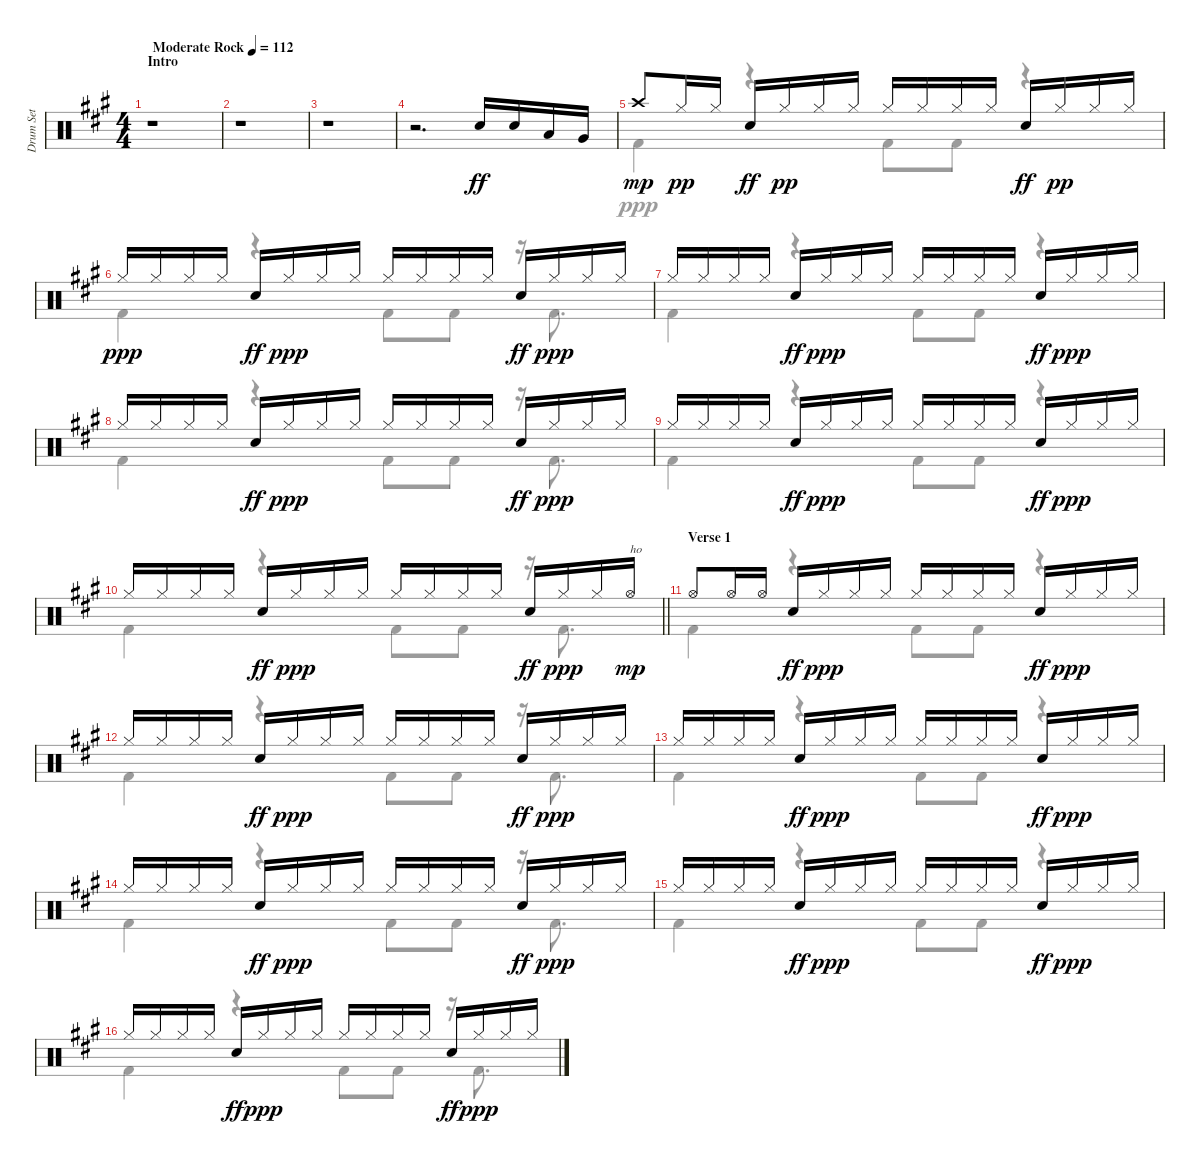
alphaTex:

\track ("Drum Set" "Drum Set") {instrument percussion}
\staff {score}
\articulation defaults
\voice
\ts (4 4)
\section ("" "Intro")
\tempo (112 "Moderate Rock")
\clef neutral
\ks f#minor
r.1{dy ff} |
r.1 |
r.1 |
r.2{d} "Electric Snare (hit)".16{beam Up} "Electric Snare (hit)".16{beam Up} "Low Tom (hit)".16{beam Up} "Very Low Tom (hit)".16{beam Up} |
"Crash high (hit)".8{dy mp} "Hi-Hat (closed)".16{dy pp} "Hi-Hat (closed)".16 "Electric Snare (hit)".16{dy ff} "Hi-Hat (closed)".16{dy pp} "Hi-Hat (closed)".16 "Hi-Hat (closed)".16 "Hi-Hat (closed)".16 "Hi-Hat (closed)".16 "Hi-Hat (closed)".16 "Hi-Hat (closed)".16 "Electric Snare (hit)".16{dy ff} "Hi-Hat (closed)".16{dy pp} "Hi-Hat (closed)".16 "Hi-Hat (closed)".16 |
"Hi-Hat (closed)".16{dy ppp} "Hi-Hat (closed)".16 "Hi-Hat (closed)".16 "Hi-Hat (closed)".16 "Electric Snare (hit)".16{dy ff} "Hi-Hat (closed)".16{dy ppp} "Hi-Hat (closed)".16 "Hi-Hat (closed)".16 "Hi-Hat (closed)".16 "Hi-Hat (closed)".16 "Hi-Hat (closed)".16 "Hi-Hat (closed)".16 "Electric Snare (hit)".16{dy ff} "Hi-Hat (closed)".16{dy ppp} "Hi-Hat (closed)".16 "Hi-Hat (closed)".16 |
"Hi-Hat (closed)".16 "Hi-Hat (closed)".16 "Hi-Hat (closed)".16 "Hi-Hat (closed)".16 "Electric Snare (hit)".16{dy ff} "Hi-Hat (closed)".16{dy ppp} "Hi-Hat (closed)".16 "Hi-Hat (closed)".16 "Hi-Hat (closed)".16 "Hi-Hat (closed)".16 "Hi-Hat (closed)".16 "Hi-Hat (closed)".16 "Electric Snare (hit)".16{dy ff} "Hi-Hat (closed)".16{dy ppp} "Hi-Hat (closed)".16 "Hi-Hat (closed)".16 |
"Hi-Hat (closed)".16 "Hi-Hat (closed)".16 "Hi-Hat (closed)".16 "Hi-Hat (closed)".16 "Electric Snare (hit)".16{dy ff} "Hi-Hat (closed)".16{dy ppp} "Hi-Hat (closed)".16 "Hi-Hat (closed)".16 "Hi-Hat (closed)".16 "Hi-Hat (closed)".16 "Hi-Hat (closed)".16 "Hi-Hat (closed)".16 "Electric Snare (hit)".16{dy ff} "Hi-Hat (closed)".16{dy ppp} "Hi-Hat (closed)".16 "Hi-Hat (closed)".16 |
"Hi-Hat (closed)".16 "Hi-Hat (closed)".16 "Hi-Hat (closed)".16 "Hi-Hat (closed)".16 "Electric Snare (hit)".16{dy ff} "Hi-Hat (closed)".16{dy ppp} "Hi-Hat (closed)".16 "Hi-Hat (closed)".16 "Hi-Hat (closed)".16 "Hi-Hat (closed)".16 "Hi-Hat (closed)".16 "Hi-Hat (closed)".16 "Electric Snare (hit)".16{dy ff} "Hi-Hat (closed)".16{dy ppp} "Hi-Hat (closed)".16 "Hi-Hat (closed)".16 |
\barLineRight lightlight "Hi-Hat (closed)".16 "Hi-Hat (closed)".16 "Hi-Hat (closed)".16 "Hi-Hat (closed)".16 "Electric Snare (hit)".16{dy ff} "Hi-Hat (closed)".16{dy ppp} "Hi-Hat (closed)".16 "Hi-Hat (closed)".16 "Hi-Hat (closed)".16 "Hi-Hat (closed)".16 "Hi-Hat (closed)".16 "Hi-Hat (closed)".16 "Electric Snare (hit)".16{dy ff} "Hi-Hat (closed)".16{dy ppp} "Hi-Hat (closed)".16 "Hi-Hat (open)".16{txt "ho" dy mp}
|
\section ("" "Verse 1")
"Hi-Hat (open)".8 "Hi-Hat (open)".16 "Hi-Hat (open)".16 "Electric Snare (hit)".16{dy ff} "Hi-Hat (closed)".16{dy ppp} "Hi-Hat (closed)".16 "Hi-Hat (closed)".16 "Hi-Hat (closed)".16 "Hi-Hat (closed)".16 "Hi-Hat (closed)".16 "Hi-Hat (closed)".16 "Electric Snare (hit)".16{dy ff} "Hi-Hat (closed)".16{dy ppp} "Hi-Hat (closed)".16 "Hi-Hat (closed)".16 |
"Hi-Hat (closed)".16 "Hi-Hat (closed)".16 "Hi-Hat (closed)".16 "Hi-Hat (closed)".16 "Electric Snare (hit)".16{dy ff} "Hi-Hat (closed)".16{dy ppp} "Hi-Hat (closed)".16 "Hi-Hat (closed)".16 "Hi-Hat (closed)".16 "Hi-Hat (closed)".16 "Hi-Hat (closed)".16 "Hi-Hat (closed)".16 "Electric Snare (hit)".16{dy ff} "Hi-Hat (closed)".16{dy ppp} "Hi-Hat (closed)".16 "Hi-Hat (closed)".16 |
"Hi-Hat (closed)".16 "Hi-Hat (closed)".16 "Hi-Hat (closed)".16 "Hi-Hat (closed)".16 "Electric Snare (hit)".16{dy ff} "Hi-Hat (closed)".16{dy ppp} "Hi-Hat (closed)".16 "Hi-Hat (closed)".16 "Hi-Hat (closed)".16 "Hi-Hat (closed)".16 "Hi-Hat (closed)".16 "Hi-Hat (closed)".16 "Electric Snare (hit)".16{dy ff} "Hi-Hat (closed)".16{dy ppp} "Hi-Hat (closed)".16 "Hi-Hat (closed)".16 |
"Hi-Hat (closed)".16 "Hi-Hat (closed)".16 "Hi-Hat (closed)".16 "Hi-Hat (closed)".16 "Electric Snare (hit)".16{dy ff} "Hi-Hat (closed)".16{dy ppp} "Hi-Hat (closed)".16 "Hi-Hat (closed)".16 "Hi-Hat (closed)".16 "Hi-Hat (closed)".16 "Hi-Hat (closed)".16 "Hi-Hat (closed)".16 "Electric Snare (hit)".16{dy ff} "Hi-Hat (closed)".16{dy ppp} "Hi-Hat (closed)".16 "Hi-Hat (closed)".16 |
"Hi-Hat (closed)".16 "Hi-Hat (closed)".16 "Hi-Hat (closed)".16 "Hi-Hat (closed)".16 "Electric Snare (hit)".16{dy ff} "Hi-Hat (closed)".16{dy ppp} "Hi-Hat (closed)".16 "Hi-Hat (closed)".16 "Hi-Hat (closed)".16 "Hi-Hat (closed)".16 "Hi-Hat (closed)".16 "Hi-Hat (closed)".16 "Electric Snare (hit)".16{dy ff} "Hi-Hat (closed)".16{dy ppp} "Hi-Hat (closed)".16 "Hi-Hat (closed)".16 |
"Hi-Hat (closed)".16 "Hi-Hat (closed)".16 "Hi-Hat (closed)".16 "Hi-Hat (closed)".16 "Electric Snare (hit)".16{dy ff} "Hi-Hat (closed)".16{dy ppp} "Hi-Hat (closed)".16 "Hi-Hat (closed)".16 "Hi-Hat (closed)".16 "Hi-Hat (closed)".16 "Hi-Hat (closed)".16 "Hi-Hat (closed)".16 "Electric Snare (hit)".16{dy ff} "Hi-Hat (closed)".16{dy ppp} "Hi-Hat (closed)".16 "Hi-Hat (closed)".16
\voice
\clef neutral
\ottava regular
\simile none
\ks f#minor
|
|
|
|
"Kick (hit) 2".4 r.4 "Kick (hit) 2".8 "Kick (hit) 2".8 r.4 |
"Kick (hit) 2".4 r.4 "Kick (hit) 2".8 "Kick (hit) 2".8 r.16 "Kick (hit) 2".8{d} |
"Kick (hit) 2".4 r.4 "Kick (hit) 2".8 "Kick (hit) 2".8 r.4 |
"Kick (hit) 2".4 r.4 "Kick (hit) 2".8 "Kick (hit) 2".8 r.16 "Kick (hit) 2".8{d} |
"Kick (hit) 2".4 r.4 "Kick (hit) 2".8 "Kick (hit) 2".8 r.4 |
\barLineRight lightlight "Kick (hit) 2".4
r.4 "Kick (hit) 2".8 "Kick (hit) 2".8 r.16 "Kick (hit) 2".8{d} |
"Kick (hit) 2".4 r.4 "Kick (hit) 2".8 "Kick (hit) 2".8 r.4 |
"Kick (hit) 2".4 r.4 "Kick (hit) 2".8 "Kick (hit) 2".8 r.16 "Kick (hit) 2".8{d} |
"Kick (hit) 2".4 r.4 "Kick (hit) 2".8 "Kick (hit) 2".8 r.4 |
"Kick (hit) 2".4 r.4 "Kick (hit) 2".8 "Kick (hit) 2".8 r.16 "Kick (hit) 2".8{d} |
"Kick (hit) 2".4 r.4 "Kick (hit) 2".8 "Kick (hit) 2".8 r.4 |
"Kick (hit) 2".4 r.4 "Kick (hit) 2".8 "Kick (hit) 2".8 r.16 "Kick (hit) 2".8{d}
